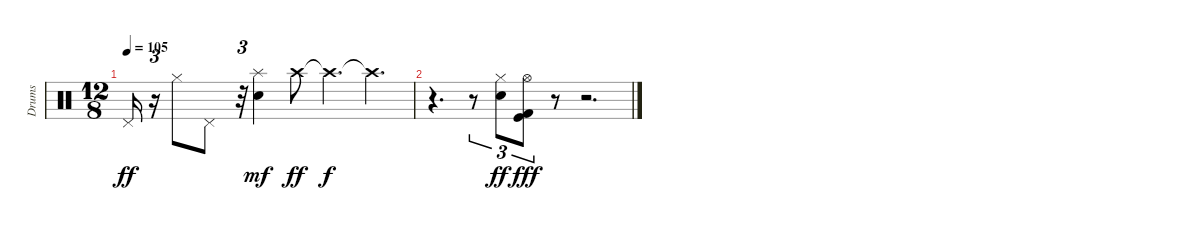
\track ("Drums" "Drums") {instrument percussion}
\staff {score}
\articulation defaults
\ts (12 8)
\tempo 105
\clef neutral
\ks c "Pedal Hi-Hat (hit)".16{dy ff}
r.16{tu (3 2)} "Hi-Hat (closed)".8 "Pedal Hi-Hat (hit)".8 r.32{tu (3 2)} ("Splash (hit)" "Snare (hit) 2").4{dy mf} "Crash high (hit)".8{dy ff} "Crash high (hit)"{t}.4{d dy f} "Crash high (hit)"{t}.4{d} |
r.4{d} r.8{tu (3 2)} ("Hi-Hat (closed)" "Snare (hit) 2").8{tu (3 2) dy ff} ("Hi-Hat (open)" "Kick (hit) 2" "Kick (hit)").8{tu (3 2) dy fff} r.8 r.2{d}
